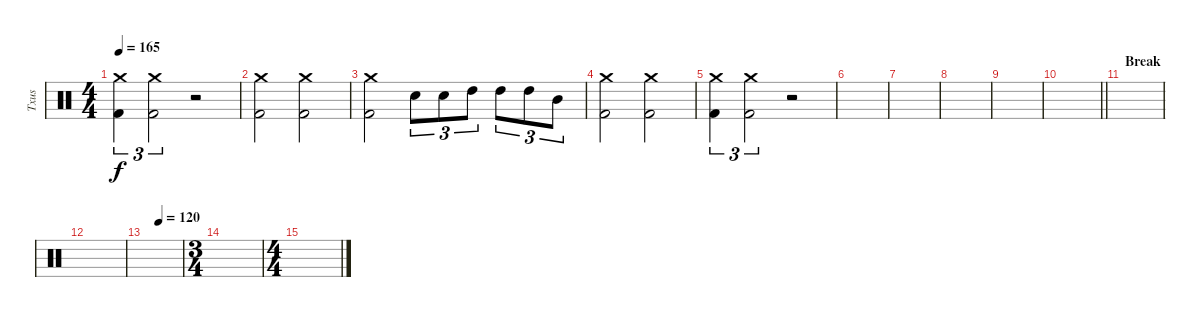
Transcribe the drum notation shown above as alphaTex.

\track ("Txus" "Txus") {instrument percussion}
\staff {score}
\articulation defaults
\ts (4 4)
\tempo 165
\clef neutral
\ks c
("Crash medium (hit)" "Kick (hit) 2").4{tu (3 2) dy f} ("Crash medium (hit)" "Kick (hit) 2").2{tu (3 2)} r.2 |
("Crash medium (hit)" "Kick (hit) 2").2 ("Crash medium (hit)" "Kick (hit) 2").2 |
("Crash medium (hit)" "Kick (hit) 2").2 "Electric Snare (hit)".8{tu (3 2)} "Electric Snare (hit)".8{tu (3 2)} "High Tom (hit)".8{tu (3 2)} "High Tom (hit)".8{tu (3 2)} "High Tom (hit)".8{tu (3 2)} "Mid Tom (hit)".8{tu (3 2)} |
("Crash medium (hit)" "Kick (hit) 2").2 ("Crash medium (hit)" "Kick (hit) 2").2 |
("Crash medium (hit)" "Kick (hit) 2").4{tu (3 2)} ("Crash medium (hit)" "Kick (hit) 2").2{tu (3 2)} r.2 |
|
|
|
|
\barLineRight lightlight
|
\section ("" "Break")
|
|
\tempo (120 0.375)
|
\ts (3 4)
|
\ts (4 4)
